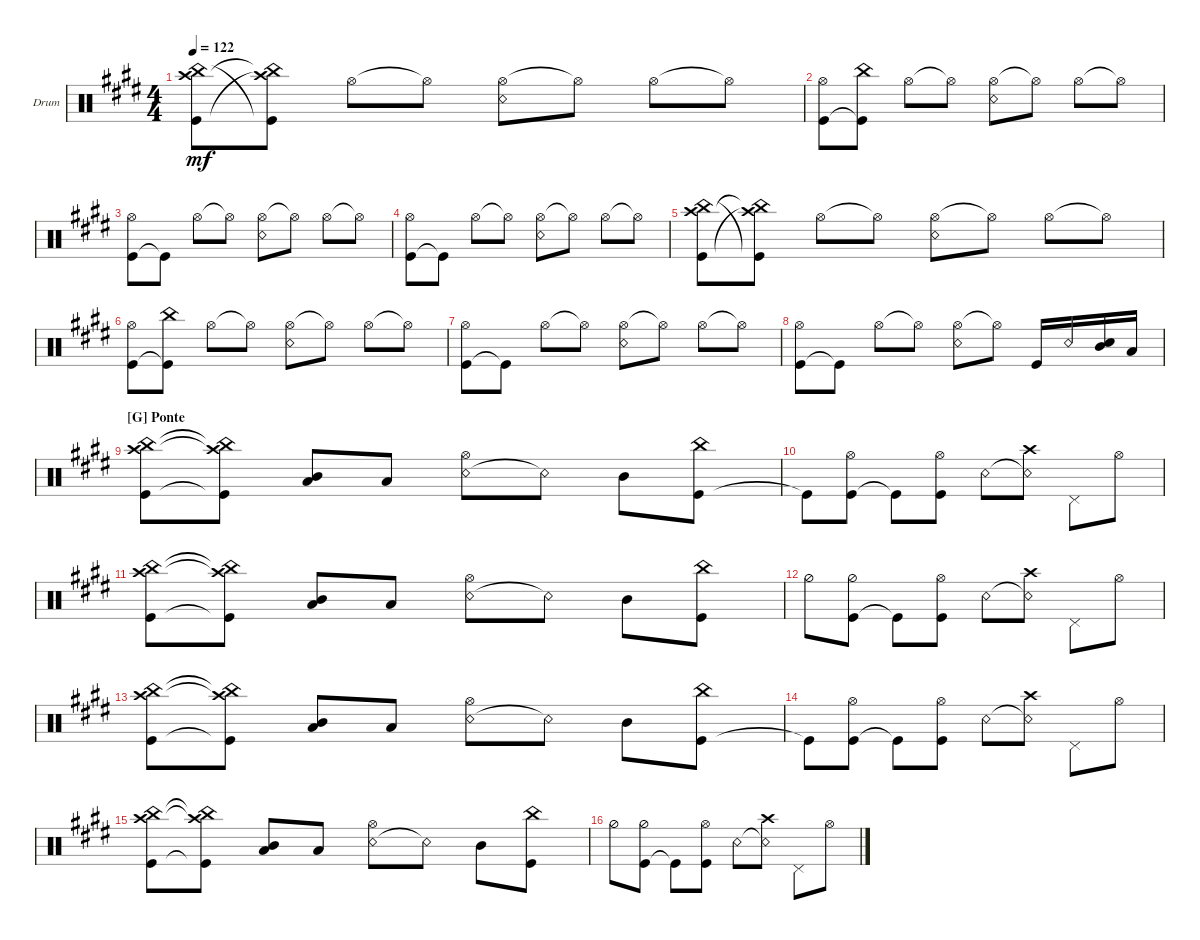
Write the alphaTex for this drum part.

\defaultSystemsLayout 4
\bracketExtendMode groupsimilarinstruments
\firstSystemTrackNameOrientation horizontal
\otherSystemsTrackNameOrientation horizontal
\track ("Bateria" "Drum") {multiBarRest instrument percussion}
\staff {score}
\articulation defaults
\ts (4 4)
\tempo 122
\clef neutral
\ks e
("China (hit)" "Crash high (hit)" "Kick (hit)").8{dy mf} ("Kick (hit)"{t} "China (hit)"{t} "Crash high (hit)"{t}).8 "Hi-Hat (open)".8 "Hi-Hat (open)"{t}.8 ("Hi-Hat (open)" "Snare (rim shot)").8 "Hi-Hat (open)"{t}.8 "Hi-Hat (open)".8 "Hi-Hat (open)"{t}.8 |
("Kick (hit)" "Hi-Hat (open)").8 ("Kick (hit)"{t} "China (hit)").8 "Hi-Hat (open)".8 "Hi-Hat (open)"{t}.8 ("Hi-Hat (open)" "Snare (rim shot)").8 "Hi-Hat (open)"{t}.8 "Hi-Hat (open)".8 "Hi-Hat (open)"{t}.8 |
("Kick (hit)" "Hi-Hat (open)").8 "Kick (hit)"{t}.8 "Hi-Hat (open)".8 "Hi-Hat (open)"{t}.8 ("Hi-Hat (open)" "Snare (rim shot)").8 "Hi-Hat (open)"{t}.8 "Hi-Hat (open)".8 "Hi-Hat (open)"{t}.8 |
("Kick (hit)" "Hi-Hat (open)").8 "Kick (hit)"{t}.8 "Hi-Hat (open)".8 "Hi-Hat (open)"{t}.8 ("Hi-Hat (open)" "Snare (rim shot)").8 "Hi-Hat (open)"{t}.8 "Hi-Hat (open)".8 "Hi-Hat (open)"{t}.8 |
("China (hit)" "Crash high (hit)" "Kick (hit)").8 ("Kick (hit)"{t} "China (hit)"{t} "Crash high (hit)"{t}).8 "Hi-Hat (open)".8 "Hi-Hat (open)"{t}.8 ("Hi-Hat (open)" "Snare (rim shot)").8 "Hi-Hat (open)"{t}.8 "Hi-Hat (open)".8 "Hi-Hat (open)"{t}.8 |
("Kick (hit)" "Hi-Hat (open)").8 ("Kick (hit)"{t} "China (hit)").8 "Hi-Hat (open)".8 "Hi-Hat (open)"{t}.8 ("Hi-Hat (open)" "Snare (rim shot)").8 "Hi-Hat (open)"{t}.8 "Hi-Hat (open)".8 "Hi-Hat (open)"{t}.8 |
("Kick (hit)" "Hi-Hat (open)").8 "Kick (hit)"{t}.8 "Hi-Hat (open)".8 "Hi-Hat (open)"{t}.8 ("Hi-Hat (open)" "Snare (rim shot)").8 "Hi-Hat (open)"{t}.8 "Hi-Hat (open)".8 "Hi-Hat (open)"{t}.8 |
("Kick (hit)" "Hi-Hat (open)").8 "Kick (hit)"{t}.8 "Hi-Hat (open)".8 "Hi-Hat (open)"{t}.8 ("Hi-Hat (open)" "Snare (rim shot)").8 "Hi-Hat (open)"{t}.8 "Kick (hit)".16 "Snare (rim shot)".16 ("Mid Tom (hit)" "Snare (hit) 2").16 "Low Tom (hit)".16 |
\section ("G" "Ponte")
("Kick (hit)" "China (hit)" "Crash high (hit)").8 ("Kick (hit)"{t} "China (hit)"{t} "Crash high (hit)"{t}).8 ("Low Tom (hit)" "Mid Tom (hit)").8 "Low Tom (hit)".8 ("Snare (rim shot)" "Hi-Hat (open)").8 "Snare (rim shot)"{t}.8 "Mid Tom (hit)".8 ("Kick (hit)" "China (hit)").8 |
"Kick (hit)"{t}.8 ("Kick (hit)" "Hi-Hat (open)").8 "Kick (hit)"{t}.8 ("Kick (hit)" "Hi-Hat (open)").8 "Snare (rim shot)".8 ("Snare (rim shot)"{t} "Crash high (hit)").8 "Pedal Hi-Hat (hit)".8 "Hi-Hat (open)".8 |
("Kick (hit)" "China (hit)" "Crash high (hit)").8 ("Kick (hit)"{t} "China (hit)"{t} "Crash high (hit)"{t}).8 ("Low Tom (hit)" "Mid Tom (hit)").8 "Low Tom (hit)".8 ("Snare (rim shot)" "Hi-Hat (open)").8 "Snare (rim shot)"{t}.8 "Mid Tom (hit)".8 ("Kick (hit)" "China (hit)").8 |
"Hi-Hat (half)".8 ("Kick (hit)" "Hi-Hat (half)").8 "Kick (hit)"{t}.8 ("Kick (hit)" "Hi-Hat (open)").8 "Snare (rim shot)".8 ("Snare (rim shot)"{t} "Crash high (hit)").8 "Pedal Hi-Hat (hit)".8 "Hi-Hat (open)".8 |
("Kick (hit)" "China (hit)" "Crash high (hit)").8 ("Kick (hit)"{t} "China (hit)"{t} "Crash high (hit)"{t}).8 ("Low Tom (hit)" "Mid Tom (hit)").8 "Low Tom (hit)".8 ("Snare (rim shot)" "Hi-Hat (open)").8 "Snare (rim shot)"{t}.8 "Mid Tom (hit)".8 ("Kick (hit)" "China (hit)").8 |
"Kick (hit)"{t}.8 ("Kick (hit)" "Hi-Hat (open)").8 "Kick (hit)"{t}.8 ("Kick (hit)" "Hi-Hat (open)").8 "Snare (rim shot)".8 ("Snare (rim shot)"{t} "Crash high (hit)").8 "Pedal Hi-Hat (hit)".8 "Hi-Hat (open)".8 |
("Kick (hit)" "China (hit)" "Crash high (hit)").8 ("Kick (hit)"{t} "China (hit)"{t} "Crash high (hit)"{t}).8 ("Low Tom (hit)" "Mid Tom (hit)").8 "Low Tom (hit)".8 ("Snare (rim shot)" "Hi-Hat (open)").8 "Snare (rim shot)"{t}.8 "Mid Tom (hit)".8 ("Kick (hit)" "China (hit)").8 |
"Hi-Hat (half)".8 ("Kick (hit)" "Hi-Hat (half)").8 "Kick (hit)"{t}.8 ("Kick (hit)" "Hi-Hat (open)").8 "Snare (rim shot)".8 ("Snare (rim shot)"{t} "Crash high (hit)").8 "Pedal Hi-Hat (hit)".8 "Hi-Hat (open)".8
